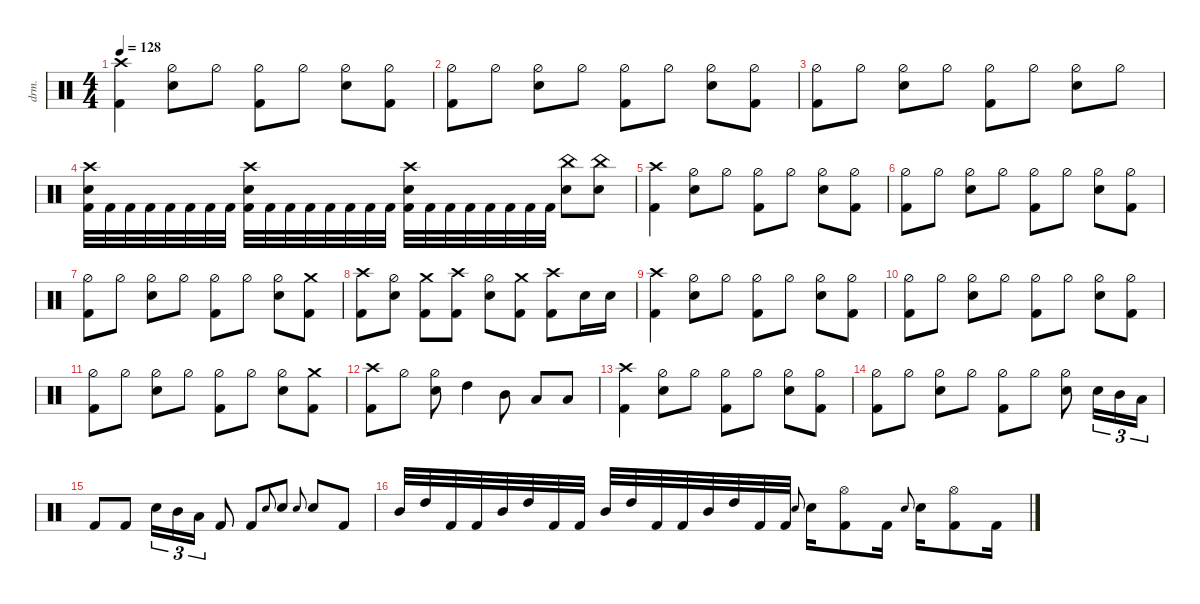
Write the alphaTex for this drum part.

\defaultSystemsLayout 4
\hideDynamics
\bracketExtendMode nobrackets
\otherSystemsTrackNameOrientation horizontal
\track ("Drumkit" "drm.") {defaultSystemsLayout 4 multiBarRest instrument percussion}
\staff
\articulation defaults
\ts (4 4)
\tempo 128
\clef neutral
\ks c
("Kick (hit) 2" "Crash high (hit)").4{dy f beam Down} ("Hi-Hat (half)" "Snare (hit) 2").8{beam Down} "Hi-Hat (half)".8{beam Down} ("Kick (hit) 2" "Hi-Hat (half)").8{beam Down} "Hi-Hat (half)".8{beam Down} ("Hi-Hat (half)" "Snare (hit) 2").8{beam Down} ("Hi-Hat (half)" "Kick (hit) 2").8{beam Down} |
("Kick (hit) 2" "Hi-Hat (half)").8{beam Down} "Hi-Hat (half)".8{beam Down} ("Hi-Hat (half)" "Snare (hit) 2").8{beam Down} "Hi-Hat (half)".8{beam Down} ("Kick (hit) 2" "Hi-Hat (half)").8{beam Down} "Hi-Hat (half)".8{beam Down} ("Hi-Hat (half)" "Snare (hit) 2").8{beam Down} ("Hi-Hat (half)" "Kick (hit) 2").8{beam Down} |
("Kick (hit) 2" "Hi-Hat (half)").8{beam Down} "Hi-Hat (half)".8{beam Down} ("Hi-Hat (half)" "Snare (hit) 2").8{beam Down} "Hi-Hat (half)".8{beam Down} ("Kick (hit) 2" "Hi-Hat (half)").8{beam Down} "Hi-Hat (half)".8{beam Down} ("Hi-Hat (half)" "Snare (hit) 2").8{beam Down} "Hi-Hat (half)".8{beam Down} |
("Crash high (hit)" "Snare (hit) 2" "Kick (hit) 2").32{beam Down} "Kick (hit) 2".32{beam Down} "Kick (hit) 2".32{beam Down} "Kick (hit) 2".32{beam Down} "Kick (hit) 2".32{beam Down} "Kick (hit) 2".32{beam Down} "Kick (hit) 2".32{beam Down} "Kick (hit) 2".32{beam Down} ("Crash high (hit)" "Snare (hit) 2" "Kick (hit) 2").32{beam Down} "Kick (hit) 2".32{beam Down} "Kick (hit) 2".32{beam Down} "Kick (hit) 2".32{beam Down} "Kick (hit) 2".32{beam Down} "Kick (hit) 2".32{beam Down} "Kick (hit) 2".32{beam Down} "Kick (hit) 2".32{beam Down} ("Crash high (hit)" "Snare (hit) 2" "Kick (hit) 2").32{beam Down} "Kick (hit) 2".32{beam Down} "Kick (hit) 2".32{beam Down} "Kick (hit) 2".32{beam Down} "Kick (hit) 2".32{beam Down} "Kick (hit) 2".32{beam Down} "Kick (hit) 2".32{beam Down} "Kick (hit) 2".32{beam Down} ("Snare (hit) 2" "China (hit)").8{beam Down} ("Snare (hit) 2" "China (hit)").8{beam Down} |
("Kick (hit) 2" "Crash high (hit)").4{beam Down} ("Hi-Hat (half)" "Snare (hit) 2").8{beam Down} "Hi-Hat (half)".8{beam Down} ("Kick (hit) 2" "Hi-Hat (half)").8{beam Down} "Hi-Hat (half)".8{beam Down} ("Hi-Hat (half)" "Snare (hit) 2").8{beam Down} ("Hi-Hat (half)" "Kick (hit) 2").8{beam Down} |
("Kick (hit) 2" "Hi-Hat (half)").8{beam Down} "Hi-Hat (half)".8{beam Down} ("Hi-Hat (half)" "Snare (hit) 2").8{beam Down} "Hi-Hat (half)".8{beam Down} ("Kick (hit) 2" "Hi-Hat (half)").8{beam Down} "Hi-Hat (half)".8{beam Down} ("Hi-Hat (half)" "Snare (hit) 2").8{beam Down} ("Hi-Hat (half)" "Kick (hit) 2").8{beam Down} |
("Kick (hit) 2" "Hi-Hat (half)").8{beam Down} "Hi-Hat (half)".8{beam Down} ("Hi-Hat (half)" "Snare (hit) 2").8{beam Down} "Hi-Hat (half)".8{beam Down} ("Kick (hit) 2" "Hi-Hat (half)").8{beam Down} "Hi-Hat (half)".8{beam Down} ("Hi-Hat (half)" "Snare (hit) 2").8{beam Down} ("Kick (hit) 2" "Crash medium (hit)").8{beam Down} |
("Kick (hit) 2" "Crash high (hit)").8{beam Down} ("Hi-Hat (half)" "Snare (hit) 2").8{beam Down} ("Kick (hit) 2" "Crash medium (hit)").8{beam Down} ("Kick (hit) 2" "Crash high (hit)").8{beam Down} ("Hi-Hat (half)" "Snare (hit) 2").8{beam Down} ("Kick (hit) 2" "Crash medium (hit)").8{beam Down} ("Kick (hit) 2" "Crash high (hit)").8{beam Down} "Snare (hit) 2".16{beam Down} "Snare (hit) 2".16{beam Down} |
("Kick (hit) 2" "Crash high (hit)").4{beam Down} ("Hi-Hat (half)" "Snare (hit) 2").8{beam Down} "Hi-Hat (half)".8{beam Down} ("Kick (hit) 2" "Hi-Hat (half)").8{beam Down} "Hi-Hat (half)".8{beam Down} ("Hi-Hat (half)" "Snare (hit) 2").8{beam Down} ("Hi-Hat (half)" "Kick (hit) 2").8{beam Down} |
("Kick (hit) 2" "Hi-Hat (half)").8{beam Down} "Hi-Hat (half)".8{beam Down} ("Hi-Hat (half)" "Snare (hit) 2").8{beam Down} "Hi-Hat (half)".8{beam Down} ("Kick (hit) 2" "Hi-Hat (half)").8{beam Down} "Hi-Hat (half)".8{beam Down} ("Hi-Hat (half)" "Snare (hit) 2").8{beam Down} ("Hi-Hat (half)" "Kick (hit) 2").8{beam Down} |
("Kick (hit) 2" "Hi-Hat (half)").8{beam Down} "Hi-Hat (half)".8{beam Down} ("Hi-Hat (half)" "Snare (hit) 2").8{beam Down} "Hi-Hat (half)".8{beam Down} ("Kick (hit) 2" "Hi-Hat (half)").8{beam Down} "Hi-Hat (half)".8{beam Down} ("Hi-Hat (half)" "Snare (hit) 2").8{beam Down} ("Kick (hit) 2" "Crash medium (hit)").8{beam Down} |
("Kick (hit) 2" "Crash high (hit)").8{beam Down} "Hi-Hat (half)".8{beam Down} ("Hi-Hat (half)" "Snare (hit) 2").8{beam Down} "High Tom (hit)".4{dy fff beam Down} "Mid Tom (hit)".8{beam Down} "Low Tom (hit)".8{beam Up} "Low Tom (hit)".8{beam Up} |
("Kick (hit) 2" "Crash high (hit)").4{dy f beam Down} ("Hi-Hat (half)" "Snare (hit) 2").8{beam Down} "Hi-Hat (half)".8{beam Down} ("Kick (hit) 2" "Hi-Hat (half)").8{beam Down} "Hi-Hat (half)".8{beam Down} ("Hi-Hat (half)" "Snare (hit) 2").8{beam Down} ("Hi-Hat (half)" "Kick (hit) 2").8{beam Down} |
("Kick (hit) 2" "Hi-Hat (half)").8{beam Down} "Hi-Hat (half)".8{beam Down} ("Hi-Hat (half)" "Snare (hit) 2").8{beam Down} "Hi-Hat (half)".8{beam Down} ("Kick (hit) 2" "Hi-Hat (half)").8{beam Down} "Hi-Hat (half)".8{beam Down} ("Hi-Hat (half)" "Snare (hit) 2").8{beam Down} "Snare (hit) 2".16{tu (3 2) beam Down} "Mid Tom (hit)".16{tu (3 2) dy fff beam Down} "Low Tom (hit)".16{tu (3 2) beam Down} |
"Kick (hit) 2".8{dy f beam Up} "Kick (hit) 2".8{beam Up} "Snare (hit) 2".16{tu (3 2) beam Down} "Mid Tom (hit)".16{tu (3 2) dy fff beam Down} "Low Tom (hit)".16{tu (3 2) beam Down} "Kick (hit) 2".8{beam Up} "Kick (hit) 2".8{dy f beam Up} "Snare (hit) 2".8{gr onbeat beam Up} "Snare (hit) 2".8{beam Up} "Snare (hit) 2".8{gr onbeat beam Up} "Snare (hit) 2".8{beam Up} "Kick (hit) 2".8{beam Up} |
"Mid Tom (hit)".32{dy fff beam Up} "High Tom (hit)".32{beam Up} "Kick (hit) 2".32{dy f beam Up} "Kick (hit) 2".32{beam Up} "Mid Tom (hit)".32{dy fff beam Up} "High Tom (hit)".32{beam Up} "Kick (hit) 2".32{dy f beam Up} "Kick (hit) 2".32{beam Up} "Mid Tom (hit)".32{dy fff beam Up} "High Tom (hit)".32{beam Up} "Kick (hit) 2".32{dy f beam Up} "Kick (hit) 2".32{beam Up} "Mid Tom (hit)".32{dy fff beam Up} "High Tom (hit)".32{beam Up} "Kick (hit) 2".32{dy f beam Up} "Kick (hit) 2".32{beam Up} "Snare (hit) 2".8{gr onbeat beam Up} "Snare (hit) 2".16{beam Down} ("Hi-Hat (open)" "Kick (hit) 2").8{beam Down} "Kick (hit) 2".16{beam Down} "Snare (hit) 2".8{gr onbeat beam Up} "Snare (hit) 2".16{beam Down} ("Hi-Hat (open)" "Kick (hit) 2").8{beam Down} "Kick (hit) 2".16{beam Down}
